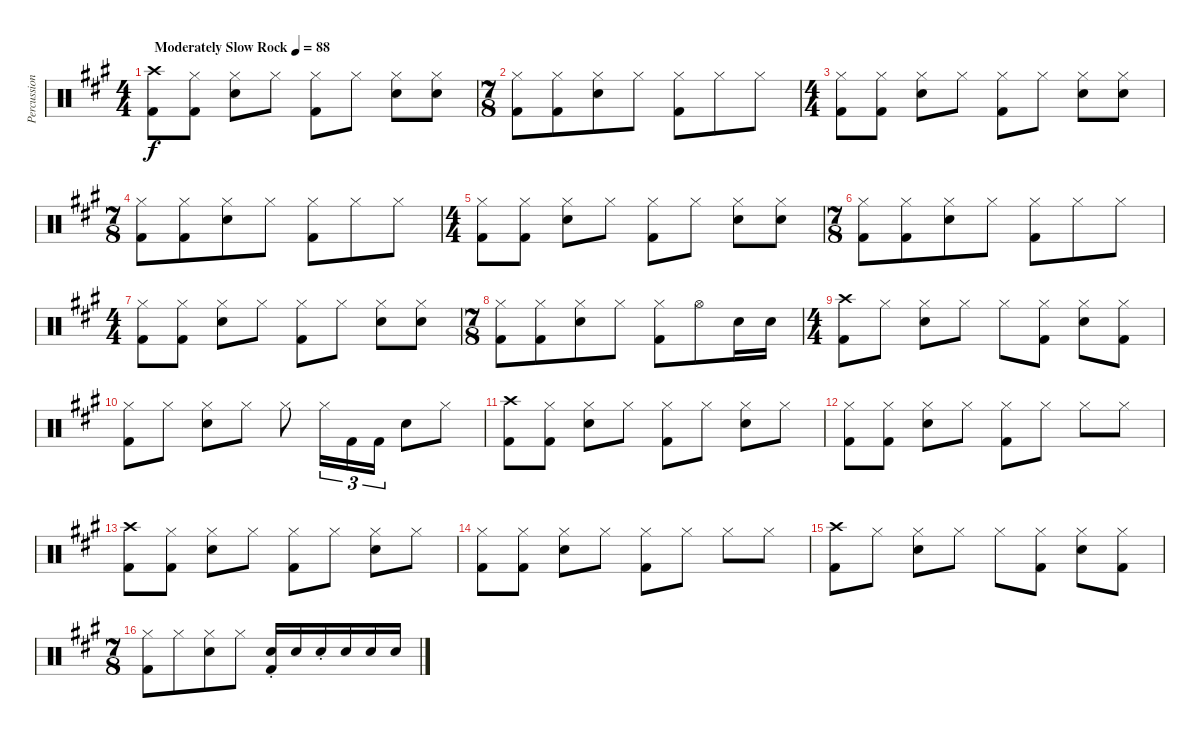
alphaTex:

\track ("Percussion" "Percussion") {instrument percussion}
\staff {score}
\articulation defaults
\ts (4 4)
\tempo (88 "Moderately Slow Rock")
\clef neutral
\ks a
("Crash high (hit)" "Kick (hit) 2").8{dy f} ("Hi-Hat (closed)" "Kick (hit) 2").8 ("Hi-Hat (closed)" "Snare (hit) 2").8 "Hi-Hat (closed)".8 ("Hi-Hat (closed)" "Kick (hit) 2").8 "Hi-Hat (closed)".8 ("Hi-Hat (closed)" "Snare (hit) 2").8 ("Hi-Hat (closed)" "Snare (hit) 2").8 |
\ts (7 8)
("Hi-Hat (closed)" "Kick (hit) 2").8 ("Hi-Hat (closed)" "Kick (hit) 2").8 ("Hi-Hat (closed)" "Snare (hit) 2").8 "Hi-Hat (closed)".8 ("Hi-Hat (closed)" "Kick (hit) 2").8 "Hi-Hat (closed)".8 "Hi-Hat (closed)".8 |
\ts (4 4)
("Hi-Hat (closed)" "Kick (hit) 2").8 ("Hi-Hat (closed)" "Kick (hit) 2").8 ("Hi-Hat (closed)" "Snare (hit) 2").8 "Hi-Hat (closed)".8 ("Hi-Hat (closed)" "Kick (hit) 2").8 "Hi-Hat (closed)".8 ("Hi-Hat (closed)" "Snare (hit) 2").8 ("Hi-Hat (closed)" "Snare (hit) 2").8 |
\ts (7 8)
("Hi-Hat (closed)" "Kick (hit) 2").8 ("Hi-Hat (closed)" "Kick (hit) 2").8 ("Hi-Hat (closed)" "Snare (hit) 2").8 "Hi-Hat (closed)".8 ("Hi-Hat (closed)" "Kick (hit) 2").8 "Hi-Hat (closed)".8 "Hi-Hat (closed)".8 |
\ts (4 4)
("Hi-Hat (closed)" "Kick (hit) 2").8 ("Hi-Hat (closed)" "Kick (hit) 2").8 ("Hi-Hat (closed)" "Snare (hit) 2").8 "Hi-Hat (closed)".8 ("Hi-Hat (closed)" "Kick (hit) 2").8 "Hi-Hat (closed)".8 ("Hi-Hat (closed)" "Snare (hit) 2").8 ("Hi-Hat (closed)" "Snare (hit) 2").8 |
\ts (7 8)
("Hi-Hat (closed)" "Kick (hit) 2").8 ("Hi-Hat (closed)" "Kick (hit) 2").8 ("Hi-Hat (closed)" "Snare (hit) 2").8 "Hi-Hat (closed)".8 ("Hi-Hat (closed)" "Kick (hit) 2").8 "Hi-Hat (closed)".8 "Hi-Hat (closed)".8 |
\ts (4 4)
("Hi-Hat (closed)" "Kick (hit) 2").8 ("Hi-Hat (closed)" "Kick (hit) 2").8 ("Hi-Hat (closed)" "Snare (hit) 2").8 "Hi-Hat (closed)".8 ("Hi-Hat (closed)" "Kick (hit) 2").8 "Hi-Hat (closed)".8 ("Hi-Hat (closed)" "Snare (hit) 2").8 ("Hi-Hat (closed)" "Snare (hit) 2").8 |
\ts (7 8)
("Hi-Hat (closed)" "Kick (hit) 2").8 ("Hi-Hat (closed)" "Kick (hit) 2").8 ("Hi-Hat (closed)" "Snare (hit) 2").8 "Hi-Hat (closed)".8 ("Hi-Hat (closed)" "Kick (hit) 2").8 "Hi-Hat (open)".8 "Snare (hit) 2".16 "Snare (hit) 2".16 |
\ts (4 4)
("Crash high (hit)" "Kick (hit) 2").8 "Hi-Hat (closed)".8 ("Hi-Hat (closed)" "Snare (hit) 2").8 "Hi-Hat (closed)".8 "Hi-Hat (closed)".8 ("Hi-Hat (closed)" "Kick (hit) 2").8 ("Hi-Hat (closed)" "Snare (hit) 2").8 ("Hi-Hat (closed)" "Kick (hit) 2").8 |
("Hi-Hat (closed)" "Kick (hit) 2").8 "Hi-Hat (closed)".8 ("Hi-Hat (closed)" "Snare (hit) 2").8 "Hi-Hat (closed)".8 "Hi-Hat (closed)".8 "Hi-Hat (closed)".16{tu (3 2)} "Kick (hit) 2".16{tu (3 2)} "Kick (hit) 2".16{tu (3 2)} "Snare (hit) 2".8 "Hi-Hat (closed)".8 |
("Crash high (hit)" "Kick (hit) 2").8 ("Hi-Hat (closed)" "Kick (hit) 2").8 ("Hi-Hat (closed)" "Snare (hit) 2").8 "Hi-Hat (closed)".8 ("Hi-Hat (closed)" "Kick (hit) 2").8 "Hi-Hat (closed)".8 ("Hi-Hat (closed)" "Snare (hit) 2").8 "Hi-Hat (closed)".8 |
("Hi-Hat (closed)" "Kick (hit) 2").8 ("Hi-Hat (closed)" "Kick (hit) 2").8 ("Hi-Hat (closed)" "Snare (hit) 2").8 "Hi-Hat (closed)".8 ("Hi-Hat (closed)" "Kick (hit) 2").8 "Hi-Hat (closed)".8 "Hi-Hat (closed)".8 "Hi-Hat (closed)".8 |
("Crash high (hit)" "Kick (hit) 2").8 ("Hi-Hat (closed)" "Kick (hit) 2").8 ("Hi-Hat (closed)" "Snare (hit) 2").8 "Hi-Hat (closed)".8 ("Hi-Hat (closed)" "Kick (hit) 2").8 "Hi-Hat (closed)".8 ("Hi-Hat (closed)" "Snare (hit) 2").8 "Hi-Hat (closed)".8 |
("Hi-Hat (closed)" "Kick (hit) 2").8 ("Hi-Hat (closed)" "Kick (hit) 2").8 ("Hi-Hat (closed)" "Snare (hit) 2").8 "Hi-Hat (closed)".8 ("Hi-Hat (closed)" "Kick (hit) 2").8 "Hi-Hat (closed)".8 "Hi-Hat (closed)".8 "Hi-Hat (closed)".8 |
("Crash high (hit)" "Kick (hit) 2").8 "Hi-Hat (closed)".8 ("Hi-Hat (closed)" "Snare (hit) 2").8 "Hi-Hat (closed)".8 "Hi-Hat (closed)".8 ("Hi-Hat (closed)" "Kick (hit) 2").8 ("Hi-Hat (closed)" "Snare (hit) 2").8 ("Hi-Hat (closed)" "Kick (hit) 2").8 |
\ts (7 8)
("Hi-Hat (closed)" "Kick (hit) 2").8 "Hi-Hat (closed)".8 ("Hi-Hat (closed)" "Snare (hit) 2").8 "Hi-Hat (closed)".8 ("Snare (hit) 2"{st} "Kick (hit) 2").16 "Snare (hit) 2".16 "Snare (hit) 2"{st}.16 "Snare (hit) 2".16 "Snare (hit) 2".16 "Snare (hit) 2".16
